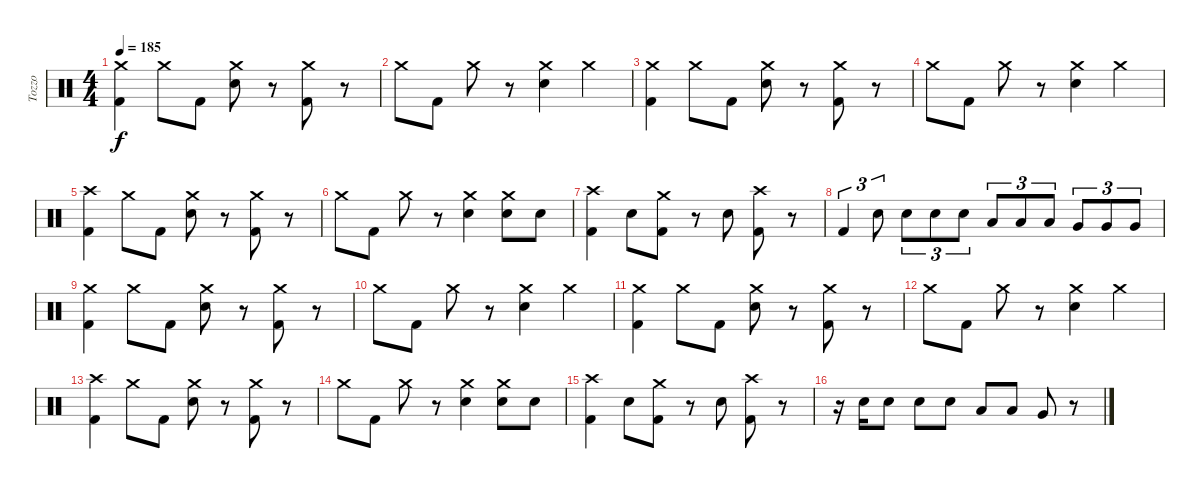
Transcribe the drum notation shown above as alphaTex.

\track ("Tozzo" "Tozzo") {instrument percussion}
\staff {score}
\articulation defaults
\ts (4 4)
\tempo 185
\clef neutral
\ks c
("Crash medium (hit)" "Kick (hit) 2").4{dy f} "Crash medium (hit)".8 "Kick (hit) 2".8 ("Crash medium (hit)" "Electric Snare (hit)").8 r.8 ("Crash medium (hit)" "Kick (hit) 2").8 r.8 |
"Crash medium (hit)".8 "Kick (hit) 2".8 "Crash medium (hit)".8 r.8 ("Crash medium (hit)" "Electric Snare (hit)").4 "Crash medium (hit)".4 |
("Crash medium (hit)" "Kick (hit) 2").4 "Crash medium (hit)".8 "Kick (hit) 2".8 ("Crash medium (hit)" "Electric Snare (hit)").8 r.8 ("Crash medium (hit)" "Kick (hit) 2").8 r.8 |
"Crash medium (hit)".8 "Kick (hit) 2".8 "Crash medium (hit)".8 r.8 ("Crash medium (hit)" "Electric Snare (hit)").4 "Crash medium (hit)".4 |
("Crash high (hit)" "Kick (hit) 2").4 "Crash medium (hit)".8 "Kick (hit) 2".8 ("Crash medium (hit)" "Electric Snare (hit)").8 r.8 ("Crash medium (hit)" "Kick (hit) 2").8 r.8 |
"Crash medium (hit)".8 "Kick (hit) 2".8 "Crash medium (hit)".8 r.8 ("Crash medium (hit)" "Electric Snare (hit)").4 ("Crash medium (hit)" "Electric Snare (hit)").8 "Electric Snare (hit)".8 |
("Crash high (hit)" "Kick (hit) 2").4 "Electric Snare (hit)".8 ("Crash medium (hit)" "Kick (hit) 2").8 r.8 "Electric Snare (hit)".8 ("Crash high (hit)" "Kick (hit) 2").8 r.8 |
"Kick (hit) 2".4{tu (3 2)} "Electric Snare (hit)".8{tu (3 2)} "Electric Snare (hit)".8{tu (3 2)} "Electric Snare (hit)".8{tu (3 2)} "Electric Snare (hit)".8{tu (3 2)} "Low Tom (hit)".8{tu (3 2)} "Low Tom (hit)".8{tu (3 2)} "Low Tom (hit)".8{tu (3 2)} "Very Low Tom (hit)".8{tu (3 2)} "Very Low Tom (hit)".8{tu (3 2)} "Very Low Tom (hit)".8{tu (3 2)} |
("Crash medium (hit)" "Kick (hit) 2").4 "Crash medium (hit)".8 "Kick (hit) 2".8 ("Crash medium (hit)" "Electric Snare (hit)").8 r.8 ("Crash medium (hit)" "Kick (hit) 2").8 r.8 |
"Crash medium (hit)".8 "Kick (hit) 2".8 "Crash medium (hit)".8 r.8 ("Crash medium (hit)" "Electric Snare (hit)").4 "Crash medium (hit)".4 |
("Crash medium (hit)" "Kick (hit) 2").4 "Crash medium (hit)".8 "Kick (hit) 2".8 ("Crash medium (hit)" "Electric Snare (hit)").8 r.8 ("Crash medium (hit)" "Kick (hit) 2").8 r.8 |
"Crash medium (hit)".8 "Kick (hit) 2".8 "Crash medium (hit)".8 r.8 ("Crash medium (hit)" "Electric Snare (hit)").4 "Crash medium (hit)".4 |
("Crash high (hit)" "Kick (hit) 2").4 "Crash medium (hit)".8 "Kick (hit) 2".8 ("Crash medium (hit)" "Electric Snare (hit)").8 r.8 ("Crash medium (hit)" "Kick (hit) 2").8 r.8 |
"Crash medium (hit)".8 "Kick (hit) 2".8 "Crash medium (hit)".8 r.8 ("Crash medium (hit)" "Electric Snare (hit)").4 ("Crash medium (hit)" "Electric Snare (hit)").8 "Electric Snare (hit)".8 |
("Crash high (hit)" "Kick (hit) 2").4 "Electric Snare (hit)".8 ("Crash medium (hit)" "Kick (hit) 2").8 r.8 "Electric Snare (hit)".8 ("Crash high (hit)" "Kick (hit) 2").8 r.8 |
r.16 "Electric Snare (hit)".16 "Electric Snare (hit)".8 "Electric Snare (hit)".8 "Electric Snare (hit)".8 "Low Tom (hit)".8 "Low Tom (hit)".8 "Very Low Tom (hit)".8 r.8
